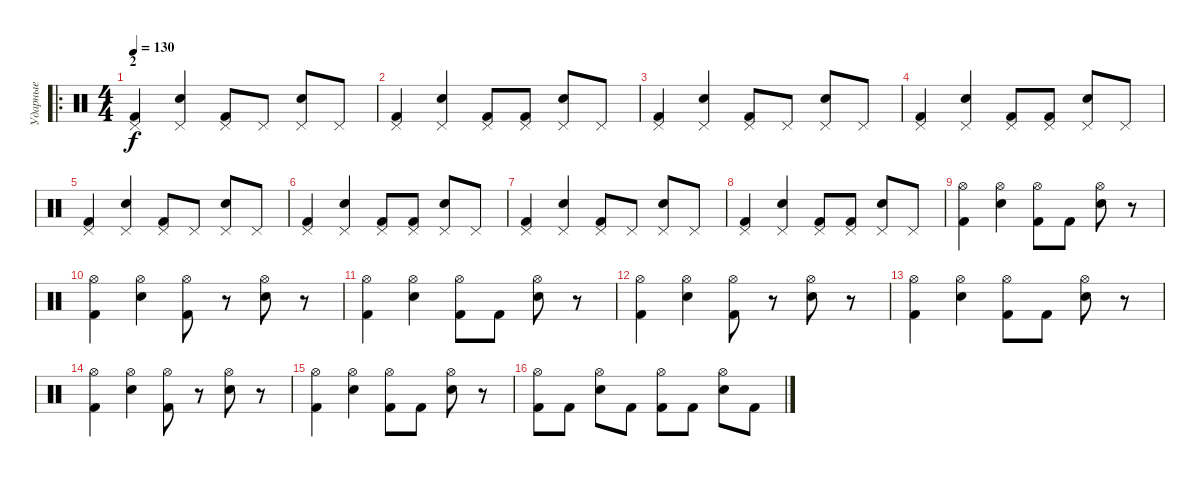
\track ("Ударные" "Ударные") {instrument percussion}
\staff {score}
\articulation defaults
\ro
\ts (4 4)
\section ("" "2")
\tempo 130
\clef neutral
\ks c
("Kick (hit) 2" "Pedal Hi-Hat (hit)").4{dy f} ("Snare (hit) 2" "Pedal Hi-Hat (hit)").4 ("Kick (hit) 2" "Pedal Hi-Hat (hit)").8 "Pedal Hi-Hat (hit)".8 ("Snare (hit) 2" "Pedal Hi-Hat (hit)").8 "Pedal Hi-Hat (hit)".8 |
("Kick (hit) 2" "Pedal Hi-Hat (hit)").4 ("Snare (hit) 2" "Pedal Hi-Hat (hit)").4 ("Kick (hit) 2" "Pedal Hi-Hat (hit)").8 ("Kick (hit) 2" "Pedal Hi-Hat (hit)").8 ("Snare (hit) 2" "Pedal Hi-Hat (hit)").8 "Pedal Hi-Hat (hit)".8 |
("Kick (hit) 2" "Pedal Hi-Hat (hit)").4 ("Snare (hit) 2" "Pedal Hi-Hat (hit)").4 ("Kick (hit) 2" "Pedal Hi-Hat (hit)").8 "Pedal Hi-Hat (hit)".8 ("Snare (hit) 2" "Pedal Hi-Hat (hit)").8 "Pedal Hi-Hat (hit)".8 |
("Kick (hit) 2" "Pedal Hi-Hat (hit)").4 ("Snare (hit) 2" "Pedal Hi-Hat (hit)").4 ("Kick (hit) 2" "Pedal Hi-Hat (hit)").8 ("Kick (hit) 2" "Pedal Hi-Hat (hit)").8 ("Snare (hit) 2" "Pedal Hi-Hat (hit)").8 "Pedal Hi-Hat (hit)".8 |
("Kick (hit) 2" "Pedal Hi-Hat (hit)").4 ("Snare (hit) 2" "Pedal Hi-Hat (hit)").4 ("Kick (hit) 2" "Pedal Hi-Hat (hit)").8 "Pedal Hi-Hat (hit)".8 ("Snare (hit) 2" "Pedal Hi-Hat (hit)").8 "Pedal Hi-Hat (hit)".8 |
("Kick (hit) 2" "Pedal Hi-Hat (hit)").4 ("Snare (hit) 2" "Pedal Hi-Hat (hit)").4 ("Kick (hit) 2" "Pedal Hi-Hat (hit)").8 ("Kick (hit) 2" "Pedal Hi-Hat (hit)").8 ("Snare (hit) 2" "Pedal Hi-Hat (hit)").8 "Pedal Hi-Hat (hit)".8 |
("Kick (hit) 2" "Pedal Hi-Hat (hit)").4 ("Snare (hit) 2" "Pedal Hi-Hat (hit)").4 ("Kick (hit) 2" "Pedal Hi-Hat (hit)").8 "Pedal Hi-Hat (hit)".8 ("Snare (hit) 2" "Pedal Hi-Hat (hit)").8 "Pedal Hi-Hat (hit)".8 |
("Kick (hit) 2" "Pedal Hi-Hat (hit)").4 ("Snare (hit) 2" "Pedal Hi-Hat (hit)").4 ("Kick (hit) 2" "Pedal Hi-Hat (hit)").8 ("Kick (hit) 2" "Pedal Hi-Hat (hit)").8 ("Snare (hit) 2" "Pedal Hi-Hat (hit)").8 "Pedal Hi-Hat (hit)".8 |
("Kick (hit) 2" "Hi-Hat (open)").4 ("Snare (hit) 2" "Hi-Hat (open)").4 ("Kick (hit) 2" "Hi-Hat (open)").8 "Kick (hit) 2".8 ("Snare (hit) 2" "Hi-Hat (open)").8 r.8 |
("Kick (hit) 2" "Hi-Hat (open)").4 ("Snare (hit) 2" "Hi-Hat (open)").4 ("Kick (hit) 2" "Hi-Hat (open)").8 r.8 ("Snare (hit) 2" "Hi-Hat (open)").8 r.8 |
("Kick (hit) 2" "Hi-Hat (open)").4 ("Snare (hit) 2" "Hi-Hat (open)").4 ("Kick (hit) 2" "Hi-Hat (open)").8 "Kick (hit) 2".8 ("Snare (hit) 2" "Hi-Hat (open)").8 r.8 |
("Kick (hit) 2" "Hi-Hat (open)").4 ("Snare (hit) 2" "Hi-Hat (open)").4 ("Kick (hit) 2" "Hi-Hat (open)").8 r.8 ("Snare (hit) 2" "Hi-Hat (open)").8 r.8 |
("Kick (hit) 2" "Hi-Hat (open)").4 ("Snare (hit) 2" "Hi-Hat (open)").4 ("Kick (hit) 2" "Hi-Hat (open)").8 "Kick (hit) 2".8 ("Snare (hit) 2" "Hi-Hat (open)").8 r.8 |
("Kick (hit) 2" "Hi-Hat (open)").4 ("Snare (hit) 2" "Hi-Hat (open)").4 ("Kick (hit) 2" "Hi-Hat (open)").8 r.8 ("Snare (hit) 2" "Hi-Hat (open)").8 r.8 |
("Kick (hit) 2" "Hi-Hat (open)").4 ("Snare (hit) 2" "Hi-Hat (open)").4 ("Kick (hit) 2" "Hi-Hat (open)").8 "Kick (hit) 2".8 ("Snare (hit) 2" "Hi-Hat (open)").8 r.8 |
("Kick (hit) 2" "Hi-Hat (open)").8 "Kick (hit) 2".8 ("Snare (hit) 2" "Hi-Hat (open)").8 "Kick (hit) 2".8 ("Kick (hit) 2" "Hi-Hat (open)").8 "Kick (hit) 2".8 ("Snare (hit) 2" "Hi-Hat (open)").8 "Kick (hit) 2".8
